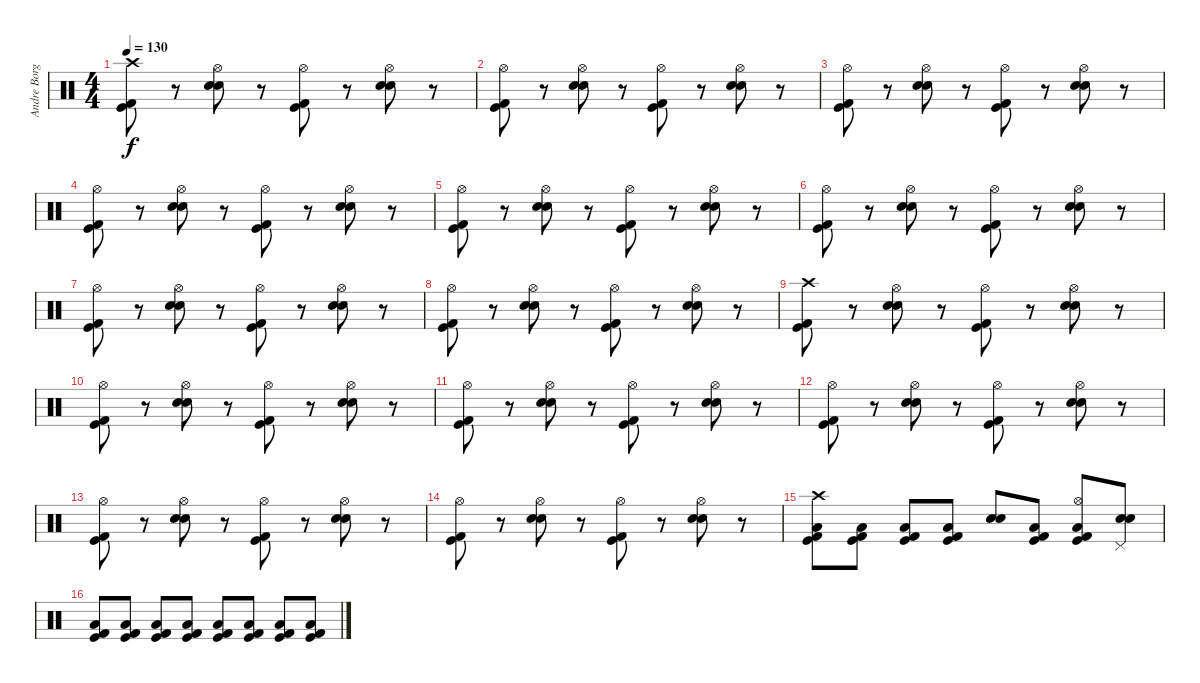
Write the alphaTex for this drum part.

\track ("Andre Borgman" "Andre Borg") {instrument percussion}
\staff {score}
\articulation defaults
\ts (4 4)
\tempo 130
\clef neutral
\ks c
("Crash high (hit)" "Kick (hit)" "Kick (hit) 2").8{dy f} r.8 ("Hi-Hat (open)" "Electric Snare (hit)" "Snare (hit) 2").8 r.8 ("Hi-Hat (open)" "Kick (hit)" "Kick (hit) 2").8 r.8 ("Hi-Hat (open)" "Electric Snare (hit)" "Snare (hit) 2").8 r.8 |
("Hi-Hat (open)" "Kick (hit)" "Kick (hit) 2").8 r.8 ("Hi-Hat (open)" "Electric Snare (hit)" "Snare (hit) 2").8 r.8 ("Hi-Hat (open)" "Kick (hit)" "Kick (hit) 2").8 r.8 ("Hi-Hat (open)" "Electric Snare (hit)" "Snare (hit) 2").8 r.8 |
("Hi-Hat (open)" "Kick (hit)" "Kick (hit) 2").8 r.8 ("Hi-Hat (open)" "Electric Snare (hit)" "Snare (hit) 2").8 r.8 ("Hi-Hat (open)" "Kick (hit)" "Kick (hit) 2").8 r.8 ("Hi-Hat (open)" "Electric Snare (hit)" "Snare (hit) 2").8 r.8 |
("Hi-Hat (open)" "Kick (hit)" "Kick (hit) 2").8 r.8 ("Hi-Hat (open)" "Electric Snare (hit)" "Snare (hit) 2").8 r.8 ("Hi-Hat (open)" "Kick (hit)" "Kick (hit) 2").8 r.8 ("Hi-Hat (open)" "Electric Snare (hit)" "Snare (hit) 2").8 r.8 |
("Hi-Hat (open)" "Kick (hit)" "Kick (hit) 2").8 r.8 ("Hi-Hat (open)" "Electric Snare (hit)" "Snare (hit) 2").8 r.8 ("Hi-Hat (open)" "Kick (hit)" "Kick (hit) 2").8 r.8 ("Hi-Hat (open)" "Electric Snare (hit)" "Snare (hit) 2").8 r.8 |
("Hi-Hat (open)" "Kick (hit)" "Kick (hit) 2").8 r.8 ("Hi-Hat (open)" "Electric Snare (hit)" "Snare (hit) 2").8 r.8 ("Hi-Hat (open)" "Kick (hit)" "Kick (hit) 2").8 r.8 ("Hi-Hat (open)" "Electric Snare (hit)" "Snare (hit) 2").8 r.8 |
("Hi-Hat (open)" "Kick (hit)" "Kick (hit) 2").8 r.8 ("Hi-Hat (open)" "Electric Snare (hit)" "Snare (hit) 2").8 r.8 ("Hi-Hat (open)" "Kick (hit)" "Kick (hit) 2").8 r.8 ("Hi-Hat (open)" "Electric Snare (hit)" "Snare (hit) 2").8 r.8 |
("Hi-Hat (open)" "Kick (hit)" "Kick (hit) 2").8 r.8 ("Hi-Hat (open)" "Electric Snare (hit)" "Snare (hit) 2").8 r.8 ("Hi-Hat (open)" "Kick (hit)" "Kick (hit) 2").8 r.8 ("Hi-Hat (open)" "Electric Snare (hit)" "Snare (hit) 2").8 r.8 |
("Crash high (hit)" "Kick (hit)" "Kick (hit) 2").8 r.8 ("Hi-Hat (open)" "Electric Snare (hit)" "Snare (hit) 2").8 r.8 ("Hi-Hat (open)" "Kick (hit)" "Kick (hit) 2").8 r.8 ("Hi-Hat (open)" "Electric Snare (hit)" "Snare (hit) 2").8 r.8 |
("Hi-Hat (open)" "Kick (hit)" "Kick (hit) 2").8 r.8 ("Hi-Hat (open)" "Electric Snare (hit)" "Snare (hit) 2").8 r.8 ("Hi-Hat (open)" "Kick (hit)" "Kick (hit) 2").8 r.8 ("Hi-Hat (open)" "Electric Snare (hit)" "Snare (hit) 2").8 r.8 |
("Hi-Hat (open)" "Kick (hit)" "Kick (hit) 2").8 r.8 ("Hi-Hat (open)" "Electric Snare (hit)" "Snare (hit) 2").8 r.8 ("Hi-Hat (open)" "Kick (hit)" "Kick (hit) 2").8 r.8 ("Hi-Hat (open)" "Electric Snare (hit)" "Snare (hit) 2").8 r.8 |
("Hi-Hat (open)" "Kick (hit)" "Kick (hit) 2").8 r.8 ("Hi-Hat (open)" "Electric Snare (hit)" "Snare (hit) 2").8 r.8 ("Hi-Hat (open)" "Kick (hit)" "Kick (hit) 2").8 r.8 ("Hi-Hat (open)" "Electric Snare (hit)" "Snare (hit) 2").8 r.8 |
("Hi-Hat (open)" "Kick (hit)" "Kick (hit) 2").8 r.8 ("Hi-Hat (open)" "Electric Snare (hit)" "Snare (hit) 2").8 r.8 ("Hi-Hat (open)" "Kick (hit)" "Kick (hit) 2").8 r.8 ("Hi-Hat (open)" "Electric Snare (hit)" "Snare (hit) 2").8 r.8 |
("Hi-Hat (open)" "Kick (hit)" "Kick (hit) 2").8 r.8 ("Hi-Hat (open)" "Electric Snare (hit)" "Snare (hit) 2").8 r.8 ("Hi-Hat (open)" "Kick (hit)" "Kick (hit) 2").8 r.8 ("Hi-Hat (open)" "Electric Snare (hit)" "Snare (hit) 2").8 r.8 |
("Crash high (hit)" "Low Floor Tom (hit)" "Kick (hit)" "Kick (hit) 2").8 ("Low Floor Tom (hit)" "Kick (hit)" "Kick (hit) 2").8 ("Low Floor Tom (hit)" "Kick (hit)" "Kick (hit) 2").8 ("Low Floor Tom (hit)" "Kick (hit)" "Kick (hit) 2").8 ("Electric Snare (hit)" "Snare (hit) 2").8 ("Low Floor Tom (hit)" "Kick (hit)" "Kick (hit) 2").8 ("Hi-Hat (open)" "Low Floor Tom (hit)" "Kick (hit)" "Kick (hit) 2").8 ("Pedal Hi-Hat (hit)" "Electric Snare (hit)" "Snare (hit) 2").8 |
("Low Floor Tom (hit)" "Kick (hit)" "Kick (hit) 2").8 ("Low Floor Tom (hit)" "Kick (hit)" "Kick (hit) 2").8 ("Low Floor Tom (hit)" "Kick (hit)" "Kick (hit) 2").8 ("Low Floor Tom (hit)" "Kick (hit)" "Kick (hit) 2").8 ("Low Floor Tom (hit)" "Kick (hit)" "Kick (hit) 2").8 ("Low Floor Tom (hit)" "Kick (hit)" "Kick (hit) 2").8 ("Low Floor Tom (hit)" "Kick (hit)" "Kick (hit) 2").8 ("Low Floor Tom (hit)" "Kick (hit)" "Kick (hit) 2").8
